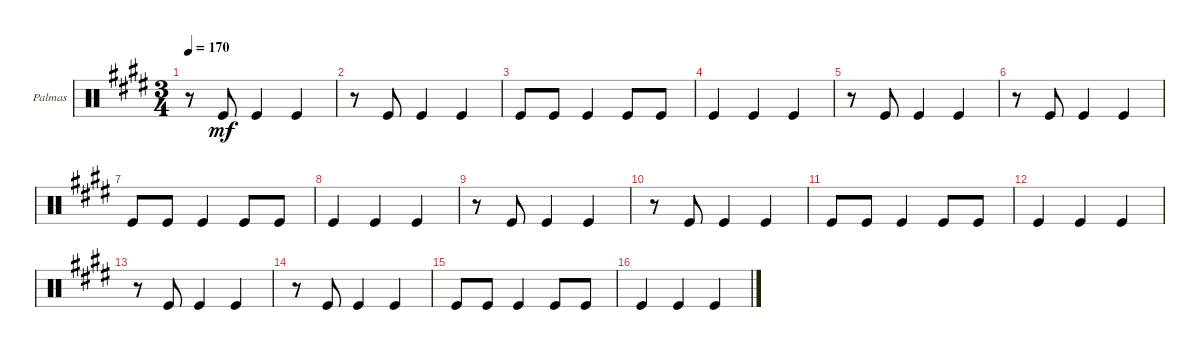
\defaultSystemsLayout 4
\bracketExtendMode groupsimilarinstruments
\firstSystemTrackNameOrientation horizontal
\otherSystemsTrackNameOrientation horizontal
\track ("Palmas" "Palmas") {instrument percussion}
\staff {score}
\articulation defaults
\ts (3 4)
\tempo 170
\clef neutral
\ks e
r.8{dy mf} "Kick (hit)".8 "Kick (hit)".4 "Kick (hit)".4 |
r.8 "Kick (hit)".8 "Kick (hit)".4 "Kick (hit)".4 |
"Kick (hit)".8 "Kick (hit)".8 "Kick (hit)".4 "Kick (hit)".8 "Kick (hit)".8 |
"Kick (hit)".4 "Kick (hit)".4 "Kick (hit)".4 |
r.8 "Kick (hit)".8 "Kick (hit)".4 "Kick (hit)".4 |
r.8 "Kick (hit)".8 "Kick (hit)".4 "Kick (hit)".4 |
"Kick (hit)".8 "Kick (hit)".8 "Kick (hit)".4 "Kick (hit)".8 "Kick (hit)".8 |
"Kick (hit)".4 "Kick (hit)".4 "Kick (hit)".4 |
r.8 "Kick (hit)".8 "Kick (hit)".4 "Kick (hit)".4 |
r.8 "Kick (hit)".8 "Kick (hit)".4 "Kick (hit)".4 |
"Kick (hit)".8 "Kick (hit)".8 "Kick (hit)".4 "Kick (hit)".8 "Kick (hit)".8 |
"Kick (hit)".4 "Kick (hit)".4 "Kick (hit)".4 |
r.8 "Kick (hit)".8 "Kick (hit)".4 "Kick (hit)".4 |
r.8 "Kick (hit)".8 "Kick (hit)".4 "Kick (hit)".4 |
"Kick (hit)".8 "Kick (hit)".8 "Kick (hit)".4 "Kick (hit)".8 "Kick (hit)".8 |
"Kick (hit)".4 "Kick (hit)".4 "Kick (hit)".4
